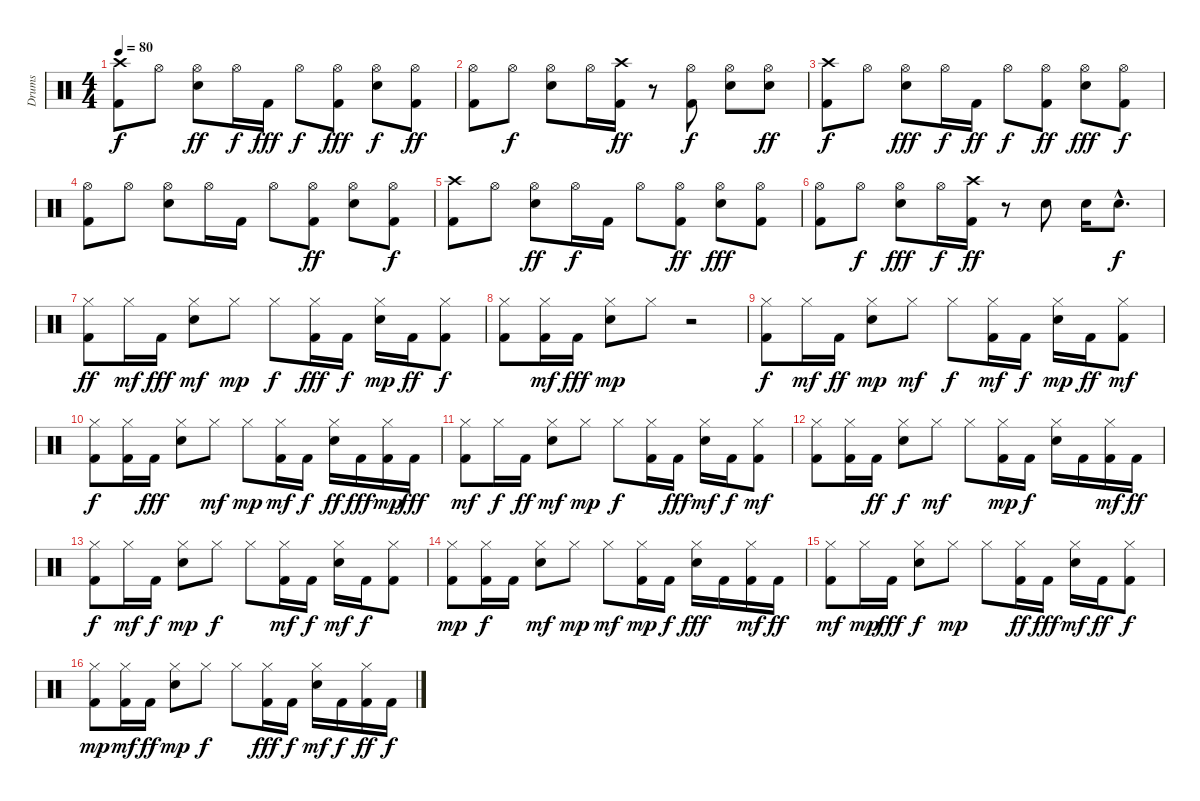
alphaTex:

\track ("Drums" "Drums") {instrument percussion}
\staff {score}
\articulation defaults
\ts (4 4)
\tempo 80
\clef neutral
\ks c
("Kick (hit) 2" "Crash high (hit)").8{dy f} "Hi-Hat (open)".8 ("Snare (hit) 2" "Hi-Hat (open)").8{dy ff} "Hi-Hat (open)".16{dy f} "Kick (hit) 2".16{dy fff} "Hi-Hat (open)".8{dy f} ("Kick (hit) 2" "Hi-Hat (open)").8{dy fff} ("Snare (hit) 2" "Hi-Hat (open)").8{dy f} ("Kick (hit) 2" "Hi-Hat (open)").8{dy ff} |
("Kick (hit) 2" "Hi-Hat (open)").8 "Hi-Hat (open)".8{dy f} ("Snare (hit) 2" "Hi-Hat (open)").8 "Hi-Hat (open)".16 ("Kick (hit) 2" "Crash high (hit)").16{dy ff} r.8 ("Kick (hit) 2" "Hi-Hat (open)").8{dy f} ("Snare (hit) 2" "Hi-Hat (open)").8 ("Snare (hit) 2" "Hi-Hat (open)").8{dy ff} |
("Kick (hit) 2" "Crash high (hit)").8{dy f} "Hi-Hat (open)".8 ("Snare (hit) 2" "Hi-Hat (open)").8{dy fff} "Hi-Hat (open)".16{dy f} "Kick (hit) 2".16{dy ff} "Hi-Hat (open)".8{dy f} ("Kick (hit) 2" "Hi-Hat (open)").8{dy ff} ("Snare (hit) 2" "Hi-Hat (open)").8{dy fff} ("Kick (hit) 2" "Hi-Hat (open)").8{dy f} |
("Kick (hit) 2" "Hi-Hat (open)").8 "Hi-Hat (open)".8 ("Snare (hit) 2" "Hi-Hat (open)").8 "Hi-Hat (open)".16 "Kick (hit) 2".16 "Hi-Hat (open)".8 ("Kick (hit) 2" "Hi-Hat (open)").8{dy ff} ("Snare (hit) 2" "Hi-Hat (open)").8 ("Kick (hit) 2" "Hi-Hat (open)").8{dy f} |
("Kick (hit) 2" "Crash high (hit)").8 "Hi-Hat (open)".8 ("Snare (hit) 2" "Hi-Hat (open)").8{dy ff} "Hi-Hat (open)".16{dy f} "Kick (hit) 2".16 "Hi-Hat (open)".8 ("Kick (hit) 2" "Hi-Hat (open)").8{dy ff} ("Snare (hit) 2" "Hi-Hat (open)").8{dy fff} ("Kick (hit) 2" "Hi-Hat (open)").8 |
("Kick (hit) 2" "Hi-Hat (open)").8 "Hi-Hat (open)".8{dy f} ("Snare (hit) 2" "Hi-Hat (open)").8{dy fff} "Hi-Hat (open)".16{dy f} ("Kick (hit) 2" "Crash high (hit)").16{dy ff} r.8 "Snare (hit) 2".8 "Snare (hit) 2".16 "Snare (hit) 2"{hac}.8{d dy f} |
("Kick (hit) 2" "Hi-Hat (closed)").8{dy ff} "Hi-Hat (closed)".16{dy mf} "Kick (hit) 2".16{dy fff} ("Snare (hit) 2" "Hi-Hat (closed)").8{dy mf} "Hi-Hat (closed)".8{dy mp} "Hi-Hat (closed)".8{dy f} ("Kick (hit) 2" "Hi-Hat (closed)").16{dy fff} "Kick (hit) 2".16{dy f} ("Snare (hit) 2" "Hi-Hat (closed)").16{dy mp} "Kick (hit) 2".16{dy ff} ("Kick (hit) 2" "Hi-Hat (closed)").8{dy f} |
("Kick (hit) 2" "Hi-Hat (closed)").8 ("Kick (hit) 2" "Hi-Hat (closed)").16{dy mf} "Kick (hit) 2".16{dy fff} ("Snare (hit) 2" "Hi-Hat (closed)").8{dy mp} "Hi-Hat (closed)".8 r.2 |
("Kick (hit) 2" "Hi-Hat (closed)").8{dy f} "Hi-Hat (closed)".16{dy mf} "Kick (hit) 2".16{dy ff} ("Snare (hit) 2" "Hi-Hat (closed)").8{dy mp} "Hi-Hat (closed)".8{dy mf} "Hi-Hat (closed)".8{dy f} ("Kick (hit) 2" "Hi-Hat (closed)").16{dy mf} "Kick (hit) 2".16{dy f} ("Snare (hit) 2" "Hi-Hat (closed)").16{dy mp} "Kick (hit) 2".16{dy ff} ("Kick (hit) 2" "Hi-Hat (closed)").8{dy mf} |
("Kick (hit) 2" "Hi-Hat (closed)").8{dy f} ("Kick (hit) 2" "Hi-Hat (closed)").16 "Kick (hit) 2".16{dy fff} ("Snare (hit) 2" "Hi-Hat (closed)").8 "Hi-Hat (closed)".8{dy mf} "Hi-Hat (closed)".8{dy mp} ("Kick (hit) 2" "Hi-Hat (closed)").16{dy mf} "Kick (hit) 2".16{dy f} ("Snare (hit) 2" "Hi-Hat (closed)").16{dy ff} "Kick (hit) 2".16{dy fff} ("Kick (hit) 2" "Hi-Hat (closed)").16{dy mp} "Kick (hit) 2".16{dy fff} |
("Kick (hit) 2" "Hi-Hat (closed)").8{dy mf} "Hi-Hat (closed)".16{dy f} "Kick (hit) 2".16{dy ff} ("Snare (hit) 2" "Hi-Hat (closed)").8{dy mf} "Hi-Hat (closed)".8{dy mp} "Hi-Hat (closed)".8{dy f} ("Kick (hit) 2" "Hi-Hat (closed)").16 "Kick (hit) 2".16{dy fff} ("Snare (hit) 2" "Hi-Hat (closed)").16{dy mf} "Kick (hit) 2".16{dy f} ("Kick (hit) 2" "Hi-Hat (closed)").8{dy mf} |
("Kick (hit) 2" "Hi-Hat (closed)").8 ("Kick (hit) 2" "Hi-Hat (closed)").16 "Kick (hit) 2".16{dy ff} ("Snare (hit) 2" "Hi-Hat (closed)").8{dy f} "Hi-Hat (closed)".8{dy mf} "Hi-Hat (closed)".8 ("Kick (hit) 2" "Hi-Hat (closed)").16{dy mp} "Kick (hit) 2".16{dy f} ("Snare (hit) 2" "Hi-Hat (closed)").16 "Kick (hit) 2".16 ("Kick (hit) 2" "Hi-Hat (closed)").16{dy mf} "Kick (hit) 2".16{dy ff} |
("Kick (hit) 2" "Hi-Hat (closed)").8{dy f} "Hi-Hat (closed)".16{dy mf} "Kick (hit) 2".16{dy f} ("Snare (hit) 2" "Hi-Hat (closed)").8{dy mp} "Hi-Hat (closed)".8{dy f} "Hi-Hat (closed)".8 ("Kick (hit) 2" "Hi-Hat (closed)").16{dy mf} "Kick (hit) 2".16{dy f} ("Snare (hit) 2" "Hi-Hat (closed)").16{dy mf} "Kick (hit) 2".16{dy f} ("Kick (hit) 2" "Hi-Hat (closed)").8 |
("Kick (hit) 2" "Hi-Hat (closed)").8{dy mp} ("Kick (hit) 2" "Hi-Hat (closed)").16{dy f} "Kick (hit) 2".16 ("Snare (hit) 2" "Hi-Hat (closed)").8{dy mf} "Hi-Hat (closed)".8{dy mp} "Hi-Hat (closed)".8{dy mf} ("Kick (hit) 2" "Hi-Hat (closed)").16{dy mp} "Kick (hit) 2".16{dy f} ("Snare (hit) 2" "Hi-Hat (closed)").16{dy fff} "Kick (hit) 2".16 ("Kick (hit) 2" "Hi-Hat (closed)").16{dy mf} "Kick (hit) 2".16{dy ff} |
("Kick (hit) 2" "Hi-Hat (closed)").8{dy mf} "Hi-Hat (closed)".16{dy mp} "Kick (hit) 2".16{dy fff} ("Snare (hit) 2" "Hi-Hat (closed)").8{dy f} "Hi-Hat (closed)".8{dy mp} "Hi-Hat (closed)".8 ("Kick (hit) 2" "Hi-Hat (closed)").16{dy ff} "Kick (hit) 2".16{dy fff} ("Snare (hit) 2" "Hi-Hat (closed)").16{dy mf} "Kick (hit) 2".16{dy ff} ("Kick (hit) 2" "Hi-Hat (closed)").8{dy f} |
("Kick (hit) 2" "Hi-Hat (closed)").8{dy mp} ("Kick (hit) 2" "Hi-Hat (closed)").16{dy mf} "Kick (hit) 2".16{dy ff} ("Snare (hit) 2" "Hi-Hat (closed)").8{dy mp} "Hi-Hat (closed)".8{dy f} "Hi-Hat (closed)".8 ("Kick (hit) 2" "Hi-Hat (closed)").16{dy fff} "Kick (hit) 2".16{dy f} ("Snare (hit) 2" "Hi-Hat (closed)").16{dy mf} "Kick (hit) 2".16{dy f} ("Kick (hit) 2" "Hi-Hat (closed)").16{dy ff} "Kick (hit) 2".16{dy f}
